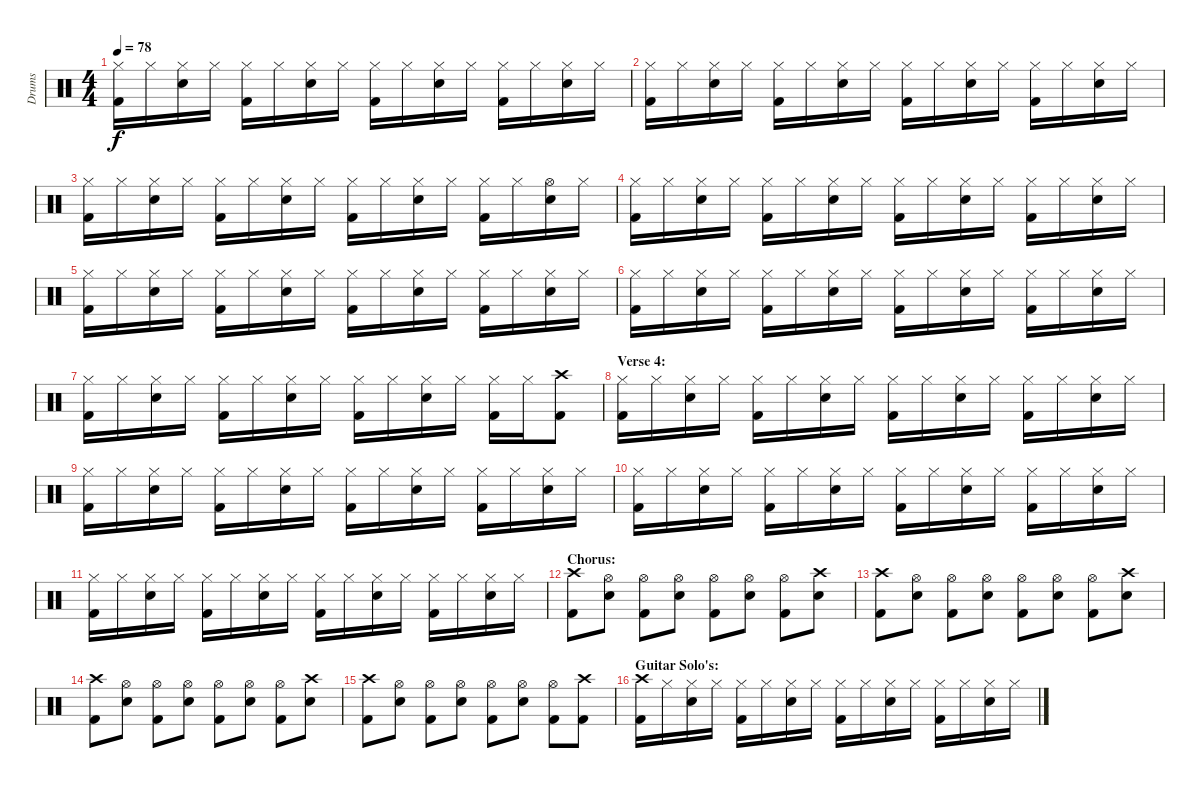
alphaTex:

\track ("Drums" "Drums") {instrument percussion}
\staff {score}
\articulation defaults
\ts (4 4)
\tempo 78
\clef neutral
\ks c
("Hi-Hat (closed)" "Kick (hit) 2").16{dy f} "Hi-Hat (closed)".16 ("Hi-Hat (closed)" "Snare (hit) 2").16 "Hi-Hat (closed)".16 ("Hi-Hat (closed)" "Kick (hit) 2").16 "Hi-Hat (closed)".16 ("Hi-Hat (closed)" "Snare (hit) 2").16 "Hi-Hat (closed)".16 ("Hi-Hat (closed)" "Kick (hit) 2").16 "Hi-Hat (closed)".16 ("Hi-Hat (closed)" "Snare (hit) 2").16 "Hi-Hat (closed)".16 ("Hi-Hat (closed)" "Kick (hit) 2").16 "Hi-Hat (closed)".16 ("Hi-Hat (closed)" "Snare (hit) 2").16 "Hi-Hat (closed)".16 |
("Hi-Hat (closed)" "Kick (hit) 2").16 "Hi-Hat (closed)".16 ("Hi-Hat (closed)" "Snare (hit) 2").16 "Hi-Hat (closed)".16 ("Hi-Hat (closed)" "Kick (hit) 2").16 "Hi-Hat (closed)".16 ("Hi-Hat (closed)" "Snare (hit) 2").16 "Hi-Hat (closed)".16 ("Hi-Hat (closed)" "Kick (hit) 2").16 "Hi-Hat (closed)".16 ("Hi-Hat (closed)" "Snare (hit) 2").16 "Hi-Hat (closed)".16 ("Hi-Hat (closed)" "Kick (hit) 2").16 "Hi-Hat (closed)".16 ("Hi-Hat (closed)" "Snare (hit) 2").16 "Hi-Hat (closed)".16 |
("Hi-Hat (closed)" "Kick (hit) 2").16 "Hi-Hat (closed)".16 ("Hi-Hat (closed)" "Snare (hit) 2").16 "Hi-Hat (closed)".16 ("Hi-Hat (closed)" "Kick (hit) 2").16 "Hi-Hat (closed)".16 ("Hi-Hat (closed)" "Snare (hit) 2").16 "Hi-Hat (closed)".16 ("Hi-Hat (closed)" "Kick (hit) 2").16 "Hi-Hat (closed)".16 ("Hi-Hat (closed)" "Snare (hit) 2").16 "Hi-Hat (closed)".16 ("Hi-Hat (closed)" "Kick (hit) 2").16 "Hi-Hat (closed)".16 ("Hi-Hat (open)" "Snare (hit) 2").16 "Hi-Hat (closed)".16 |
("Hi-Hat (closed)" "Kick (hit) 2").16 "Hi-Hat (closed)".16 ("Hi-Hat (closed)" "Snare (hit) 2").16 "Hi-Hat (closed)".16 ("Hi-Hat (closed)" "Kick (hit) 2").16 "Hi-Hat (closed)".16 ("Hi-Hat (closed)" "Snare (hit) 2").16 "Hi-Hat (closed)".16 ("Hi-Hat (closed)" "Kick (hit) 2").16 "Hi-Hat (closed)".16 ("Hi-Hat (closed)" "Snare (hit) 2").16 "Hi-Hat (closed)".16 ("Hi-Hat (closed)" "Kick (hit) 2").16 "Hi-Hat (closed)".16 ("Hi-Hat (closed)" "Snare (hit) 2").16 "Hi-Hat (closed)".16 |
("Hi-Hat (closed)" "Kick (hit) 2").16 "Hi-Hat (closed)".16 ("Hi-Hat (closed)" "Snare (hit) 2").16 "Hi-Hat (closed)".16 ("Hi-Hat (closed)" "Kick (hit) 2").16 "Hi-Hat (closed)".16 ("Hi-Hat (closed)" "Snare (hit) 2").16 "Hi-Hat (closed)".16 ("Hi-Hat (closed)" "Kick (hit) 2").16 "Hi-Hat (closed)".16 ("Hi-Hat (closed)" "Snare (hit) 2").16 "Hi-Hat (closed)".16 ("Hi-Hat (closed)" "Kick (hit) 2").16 "Hi-Hat (closed)".16 ("Hi-Hat (closed)" "Snare (hit) 2").16 "Hi-Hat (closed)".16 |
("Hi-Hat (closed)" "Kick (hit) 2").16 "Hi-Hat (closed)".16 ("Hi-Hat (closed)" "Snare (hit) 2").16 "Hi-Hat (closed)".16 ("Hi-Hat (closed)" "Kick (hit) 2").16 "Hi-Hat (closed)".16 ("Hi-Hat (closed)" "Snare (hit) 2").16 "Hi-Hat (closed)".16 ("Hi-Hat (closed)" "Kick (hit) 2").16 "Hi-Hat (closed)".16 ("Hi-Hat (closed)" "Snare (hit) 2").16 "Hi-Hat (closed)".16 ("Hi-Hat (closed)" "Kick (hit) 2").16 "Hi-Hat (closed)".16 ("Hi-Hat (closed)" "Snare (hit) 2").16 "Hi-Hat (closed)".16 |
("Hi-Hat (closed)" "Kick (hit) 2").16 "Hi-Hat (closed)".16 ("Hi-Hat (closed)" "Snare (hit) 2").16 "Hi-Hat (closed)".16 ("Hi-Hat (closed)" "Kick (hit) 2").16 "Hi-Hat (closed)".16 ("Hi-Hat (closed)" "Snare (hit) 2").16 "Hi-Hat (closed)".16 ("Hi-Hat (closed)" "Kick (hit) 2").16 "Hi-Hat (closed)".16 ("Hi-Hat (closed)" "Snare (hit) 2").16 "Hi-Hat (closed)".16 ("Hi-Hat (closed)" "Kick (hit) 2").16 "Hi-Hat (closed)".16 ("Crash high (hit)" "Kick (hit) 2").8 |
\section ("" "Verse 4:")
("Hi-Hat (closed)" "Kick (hit) 2").16 "Hi-Hat (closed)".16 ("Hi-Hat (closed)" "Snare (hit) 2").16 "Hi-Hat (closed)".16 ("Hi-Hat (closed)" "Kick (hit) 2").16 "Hi-Hat (closed)".16 ("Hi-Hat (closed)" "Snare (hit) 2").16 "Hi-Hat (closed)".16 ("Hi-Hat (closed)" "Kick (hit) 2").16 "Hi-Hat (closed)".16 ("Hi-Hat (closed)" "Snare (hit) 2").16 "Hi-Hat (closed)".16 ("Hi-Hat (closed)" "Kick (hit) 2").16 "Hi-Hat (closed)".16 ("Hi-Hat (closed)" "Snare (hit) 2").16 "Hi-Hat (closed)".16 |
("Hi-Hat (closed)" "Kick (hit) 2").16 "Hi-Hat (closed)".16 ("Hi-Hat (closed)" "Snare (hit) 2").16 "Hi-Hat (closed)".16 ("Hi-Hat (closed)" "Kick (hit) 2").16 "Hi-Hat (closed)".16 ("Hi-Hat (closed)" "Snare (hit) 2").16 "Hi-Hat (closed)".16 ("Hi-Hat (closed)" "Kick (hit) 2").16 "Hi-Hat (closed)".16 ("Hi-Hat (closed)" "Snare (hit) 2").16 "Hi-Hat (closed)".16 ("Hi-Hat (closed)" "Kick (hit) 2").16 "Hi-Hat (closed)".16 ("Hi-Hat (closed)" "Snare (hit) 2").16 "Hi-Hat (closed)".16 |
("Hi-Hat (closed)" "Kick (hit) 2").16 "Hi-Hat (closed)".16 ("Hi-Hat (closed)" "Snare (hit) 2").16 "Hi-Hat (closed)".16 ("Hi-Hat (closed)" "Kick (hit) 2").16 "Hi-Hat (closed)".16 ("Hi-Hat (closed)" "Snare (hit) 2").16 "Hi-Hat (closed)".16 ("Hi-Hat (closed)" "Kick (hit) 2").16 "Hi-Hat (closed)".16 ("Hi-Hat (closed)" "Snare (hit) 2").16 "Hi-Hat (closed)".16 ("Hi-Hat (closed)" "Kick (hit) 2").16 "Hi-Hat (closed)".16 ("Hi-Hat (closed)" "Snare (hit) 2").16 "Hi-Hat (closed)".16 |
("Hi-Hat (closed)" "Kick (hit) 2").16 "Hi-Hat (closed)".16 ("Hi-Hat (closed)" "Snare (hit) 2").16 "Hi-Hat (closed)".16 ("Hi-Hat (closed)" "Kick (hit) 2").16 "Hi-Hat (closed)".16 ("Hi-Hat (closed)" "Snare (hit) 2").16 "Hi-Hat (closed)".16 ("Hi-Hat (closed)" "Kick (hit) 2").16 "Hi-Hat (closed)".16 ("Hi-Hat (closed)" "Snare (hit) 2").16 "Hi-Hat (closed)".16 ("Hi-Hat (closed)" "Kick (hit) 2").16 "Hi-Hat (closed)".16 ("Hi-Hat (closed)" "Snare (hit) 2").16 "Hi-Hat (closed)".16 |
\section ("" "Chorus:")
("Crash high (hit)" "Kick (hit) 2").8 ("Hi-Hat (open)" "Snare (hit) 2").8 ("Hi-Hat (open)" "Kick (hit) 2").8 ("Hi-Hat (open)" "Snare (hit) 2").8 ("Hi-Hat (open)" "Kick (hit) 2").8 ("Hi-Hat (open)" "Snare (hit) 2").8 ("Hi-Hat (open)" "Kick (hit) 2").8 ("Crash high (hit)" "Snare (hit) 2").8 |
("Crash high (hit)" "Kick (hit) 2").8 ("Hi-Hat (open)" "Snare (hit) 2").8 ("Hi-Hat (open)" "Kick (hit) 2").8 ("Hi-Hat (open)" "Snare (hit) 2").8 ("Hi-Hat (open)" "Kick (hit) 2").8 ("Hi-Hat (open)" "Snare (hit) 2").8 ("Hi-Hat (open)" "Kick (hit) 2").8 ("Crash high (hit)" "Snare (hit) 2").8 |
("Crash high (hit)" "Kick (hit) 2").8 ("Hi-Hat (open)" "Snare (hit) 2").8 ("Hi-Hat (open)" "Kick (hit) 2").8 ("Hi-Hat (open)" "Snare (hit) 2").8 ("Hi-Hat (open)" "Kick (hit) 2").8 ("Hi-Hat (open)" "Snare (hit) 2").8 ("Hi-Hat (open)" "Kick (hit) 2").8 ("Crash high (hit)" "Snare (hit) 2").8 |
("Crash high (hit)" "Kick (hit) 2").8 ("Hi-Hat (open)" "Snare (hit) 2").8 ("Hi-Hat (open)" "Kick (hit) 2").8 ("Hi-Hat (open)" "Snare (hit) 2").8 ("Hi-Hat (open)" "Kick (hit) 2").8 ("Hi-Hat (open)" "Snare (hit) 2").8 ("Hi-Hat (open)" "Kick (hit) 2").8 ("Crash high (hit)" "Kick (hit) 2").8 |
\section ("" "Guitar Solo's:")
("Crash high (hit)" "Kick (hit) 2").16 "Hi-Hat (closed)".16 ("Hi-Hat (closed)" "Snare (hit) 2").16 "Hi-Hat (closed)".16 ("Hi-Hat (closed)" "Kick (hit) 2").16 "Hi-Hat (closed)".16 ("Hi-Hat (closed)" "Snare (hit) 2").16 "Hi-Hat (closed)".16 ("Hi-Hat (closed)" "Kick (hit) 2").16 "Hi-Hat (closed)".16 ("Hi-Hat (closed)" "Snare (hit) 2").16 "Hi-Hat (closed)".16 ("Hi-Hat (closed)" "Kick (hit) 2").16 "Hi-Hat (closed)".16 ("Hi-Hat (closed)" "Snare (hit) 2").16 "Hi-Hat (closed)".16
